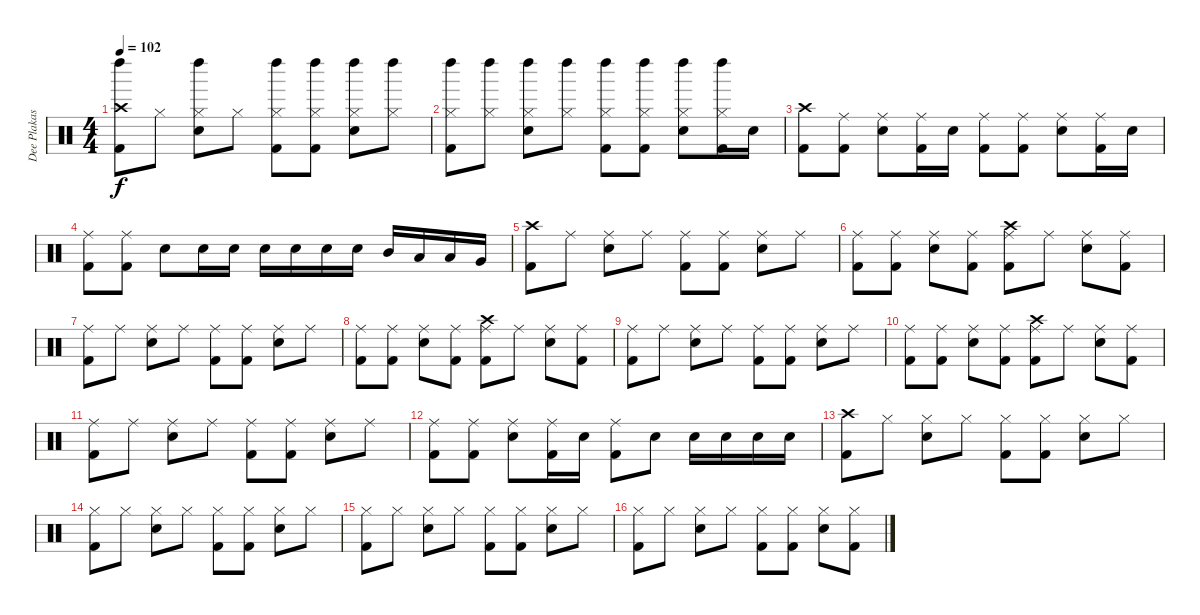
\track ("Dee Plakas" "Dee Plakas") {instrument percussion}
\staff {score}
\articulation defaults
\ts (4 4)
\tempo 102
\clef neutral
\ks c
("Crash high (hit)" "Left Maraca (hit)" "Kick (hit) 2").8{dy f} "Hi-Hat (closed)".8 ("Hi-Hat (closed)" "Left Maraca (hit)" "Snare (hit) 2").8 "Hi-Hat (closed)".8 ("Hi-Hat (closed)" "Left Maraca (hit)" "Kick (hit) 2").8 ("Hi-Hat (closed)" "Left Maraca (hit)" "Kick (hit) 2").8 ("Hi-Hat (closed)" "Left Maraca (hit)" "Snare (hit) 2").8 ("Hi-Hat (closed)" "Left Maraca (hit)").8 |
("Hi-Hat (closed)" "Left Maraca (hit)" "Kick (hit) 2").8 ("Hi-Hat (closed)" "Left Maraca (hit)").8 ("Hi-Hat (closed)" "Left Maraca (hit)" "Snare (hit) 2").8 ("Hi-Hat (closed)" "Left Maraca (hit)").8 ("Hi-Hat (closed)" "Left Maraca (hit)" "Kick (hit) 2").8 ("Hi-Hat (closed)" "Left Maraca (hit)" "Kick (hit) 2").8 ("Hi-Hat (closed)" "Left Maraca (hit)" "Snare (hit) 2").8 ("Hi-Hat (closed)" "Left Maraca (hit)" "Kick (hit) 2").16 "Snare (hit) 2".16 |
("Crash high (hit)" "Kick (hit) 2").8 ("Ride (middle)" "Kick (hit) 2").8 ("Ride (middle)" "Snare (hit) 2").8 ("Ride (middle)" "Kick (hit) 2").16 "Snare (hit) 2".16 ("Ride (middle)" "Kick (hit) 2").8 ("Ride (middle)" "Kick (hit) 2").8 ("Ride (middle)" "Snare (hit) 2").8 ("Ride (middle)" "Kick (hit) 2").16 "Snare (hit) 2".16 |
("Ride (middle)" "Kick (hit) 2").8 ("Ride (middle)" "Kick (hit) 2").8 "Snare (hit) 2".8 "Snare (hit) 2".16 "Snare (hit) 2".16 "Snare (hit) 2".16 "Snare (hit) 2".16 "Snare (hit) 2".16 "Snare (hit) 2".16 "Mid Tom (hit)".16 "Low Tom (hit)".16 "Low Tom (hit)".16 "Very Low Tom (hit)".16 |
("Crash high (hit)" "Kick (hit) 2").8 "Ride (middle)".8 ("Ride (middle)" "Snare (hit) 2").8 "Ride (middle)".8 ("Ride (middle)" "Kick (hit) 2").8 ("Ride (middle)" "Kick (hit) 2").8 ("Ride (middle)" "Snare (hit) 2").8 "Ride (middle)".8 |
("Ride (middle)" "Kick (hit) 2").8 ("Ride (middle)" "Kick (hit) 2").8 ("Ride (middle)" "Snare (hit) 2").8 ("Ride (middle)" "Kick (hit) 2").8 ("Ride (middle)" "Crash high (hit)" "Kick (hit) 2").8 "Ride (middle)".8 ("Ride (middle)" "Snare (hit) 2").8 ("Ride (middle)" "Kick (hit) 2").8 |
("Ride (middle)" "Kick (hit) 2").8 "Ride (middle)".8 ("Ride (middle)" "Snare (hit) 2").8 "Ride (middle)".8 ("Ride (middle)" "Kick (hit) 2").8 ("Ride (middle)" "Kick (hit) 2").8 ("Ride (middle)" "Snare (hit) 2").8 "Ride (middle)".8 |
("Ride (middle)" "Kick (hit) 2").8 ("Ride (middle)" "Kick (hit) 2").8 ("Ride (middle)" "Snare (hit) 2").8 ("Ride (middle)" "Kick (hit) 2").8 ("Ride (middle)" "Crash high (hit)" "Kick (hit) 2").8 "Ride (middle)".8 ("Ride (middle)" "Snare (hit) 2").8 ("Ride (middle)" "Kick (hit) 2").8 |
("Ride (middle)" "Kick (hit) 2").8 "Ride (middle)".8 ("Ride (middle)" "Snare (hit) 2").8 "Ride (middle)".8 ("Ride (middle)" "Kick (hit) 2").8 ("Ride (middle)" "Kick (hit) 2").8 ("Ride (middle)" "Snare (hit) 2").8 "Ride (middle)".8 |
("Ride (middle)" "Kick (hit) 2").8 ("Ride (middle)" "Kick (hit) 2").8 ("Ride (middle)" "Snare (hit) 2").8 ("Ride (middle)" "Kick (hit) 2").8 ("Ride (middle)" "Crash high (hit)" "Kick (hit) 2").8 "Ride (middle)".8 ("Ride (middle)" "Snare (hit) 2").8 ("Ride (middle)" "Kick (hit) 2").8 |
("Ride (middle)" "Kick (hit) 2").8 "Ride (middle)".8 ("Ride (middle)" "Snare (hit) 2").8 "Ride (middle)".8 ("Ride (middle)" "Kick (hit) 2").8 ("Ride (middle)" "Kick (hit) 2").8 ("Ride (middle)" "Snare (hit) 2").8 "Ride (middle)".8 |
("Ride (middle)" "Kick (hit) 2").8 ("Ride (middle)" "Kick (hit) 2").8 ("Ride (middle)" "Snare (hit) 2").8 ("Ride (middle)" "Kick (hit) 2").16 "Snare (hit) 2".16 ("Ride (middle)" "Kick (hit) 2").8 "Snare (hit) 2".8 "Snare (hit) 2".16 "Snare (hit) 2".16 "Snare (hit) 2".16 "Snare (hit) 2".16 |
("Crash high (hit)" "Kick (hit) 2").8 "Hi-Hat (closed)".8 ("Hi-Hat (closed)" "Snare (hit) 2").8 "Hi-Hat (closed)".8 ("Hi-Hat (closed)" "Kick (hit) 2").8 ("Hi-Hat (closed)" "Kick (hit) 2").8 ("Hi-Hat (closed)" "Snare (hit) 2").8 "Hi-Hat (closed)".8 |
("Hi-Hat (closed)" "Kick (hit) 2").8 "Hi-Hat (closed)".8 ("Hi-Hat (closed)" "Snare (hit) 2").8 "Hi-Hat (closed)".8 ("Hi-Hat (closed)" "Kick (hit) 2").8 ("Hi-Hat (closed)" "Kick (hit) 2").8 ("Hi-Hat (closed)" "Snare (hit) 2").8 "Hi-Hat (closed)".8 |
("Hi-Hat (closed)" "Kick (hit) 2").8 "Hi-Hat (closed)".8 ("Hi-Hat (closed)" "Snare (hit) 2").8 "Hi-Hat (closed)".8 ("Hi-Hat (closed)" "Kick (hit) 2").8 ("Hi-Hat (closed)" "Kick (hit) 2").8 ("Hi-Hat (closed)" "Snare (hit) 2").8 "Hi-Hat (closed)".8 |
("Hi-Hat (closed)" "Kick (hit) 2").8 "Hi-Hat (closed)".8 ("Hi-Hat (closed)" "Snare (hit) 2").8 "Hi-Hat (closed)".8 ("Hi-Hat (closed)" "Kick (hit) 2").8 ("Hi-Hat (closed)" "Kick (hit) 2").8 ("Hi-Hat (closed)" "Snare (hit) 2").8 ("Hi-Hat (closed)" "Kick (hit) 2").8
